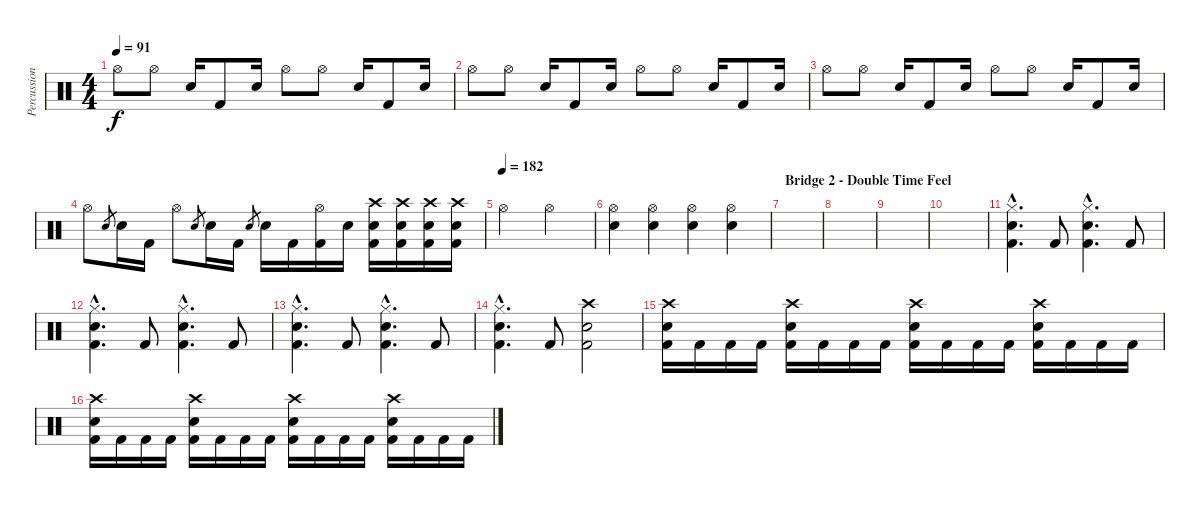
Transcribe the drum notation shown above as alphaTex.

\track ("Percussion" "Percussion") {instrument percussion}
\staff {score}
\articulation defaults
\ts (4 4)
\tempo 91
\clef neutral
\ks c "Hi-Hat (open)".8{dy f} "Hi-Hat (open)".8 "Snare (hit) 2".16 "Kick (hit) 2".8 "Snare (hit) 2".16 "Hi-Hat (open)".8 "Hi-Hat (open)".8 "Snare (hit) 2".16 "Kick (hit) 2".8 "Snare (hit) 2".16
|
"Hi-Hat (open)".8 "Hi-Hat (open)".8 "Snare (hit) 2".16 "Kick (hit) 2".8 "Snare (hit) 2".16 "Hi-Hat (open)".8 "Hi-Hat (open)".8 "Snare (hit) 2".16 "Kick (hit) 2".8 "Snare (hit) 2".16 |
"Hi-Hat (open)".8 "Hi-Hat (open)".8 "Snare (hit) 2".16 "Kick (hit) 2".8 "Snare (hit) 2".16 "Hi-Hat (open)".8 "Hi-Hat (open)".8 "Snare (hit) 2".16 "Kick (hit) 2".8 "Snare (hit) 2".16 |
"Hi-Hat (open)".8 "Snare (hit) 2".8{gr} "Snare (hit) 2".16 "Kick (hit) 2".16 "Hi-Hat (open)".8 "Snare (hit) 2".8{gr} "Snare (hit) 2".16 "Kick (hit) 2".16 "Snare (hit) 2".8{gr} "Snare (hit) 2".16 "Kick (hit) 2".16 ("Hi-Hat (open)" "Kick (hit) 2").16 "Snare (hit) 2".16 ("Crash high (hit)" "Snare (hit) 2" "Kick (hit) 2").16 ("Crash high (hit)" "Snare (hit) 2" "Kick (hit) 2").16 ("Crash high (hit)" "Snare (hit) 2" "Kick (hit) 2").16 ("Crash high (hit)" "Snare (hit) 2" "Kick (hit) 2").16 |
\tempo (182)
"Hi-Hat (open)".2 "Hi-Hat (open)".2 |
("Hi-Hat (open)" "Snare (hit) 2").4 ("Hi-Hat (open)" "Snare (hit) 2").4 ("Hi-Hat (open)" "Snare (hit) 2").4 ("Hi-Hat (open)" "Snare (hit) 2").4 |
\section ("" "Bridge 2 - Double Time Feel")
|
|
|
|
("Hi-Hat (closed)"{hac} "Snare (hit) 2"{hac} "Kick (hit) 2"{hac}).4{d} "Kick (hit) 2".8 ("Hi-Hat (closed)"{hac} "Snare (hit) 2"{hac} "Kick (hit) 2"{hac}).4{d} "Kick (hit) 2".8 |
("Hi-Hat (closed)"{hac} "Snare (hit) 2"{hac} "Kick (hit) 2"{hac}).4{d} "Kick (hit) 2".8 ("Hi-Hat (closed)"{hac} "Snare (hit) 2"{hac} "Kick (hit) 2"{hac}).4{d} "Kick (hit) 2".8 |
("Hi-Hat (closed)"{hac} "Snare (hit) 2"{hac} "Kick (hit) 2"{hac}).4{d} "Kick (hit) 2".8 ("Hi-Hat (closed)"{hac} "Snare (hit) 2"{hac} "Kick (hit) 2"{hac}).4{d} "Kick (hit) 2".8 |
("Hi-Hat (closed)"{hac} "Snare (hit) 2"{hac} "Kick (hit) 2"{hac}).4{d} "Kick (hit) 2".8 ("Crash high (hit)" "Snare (hit) 2" "Kick (hit) 2").2 |
("Crash high (hit)" "Snare (hit) 2" "Kick (hit) 2").16 "Kick (hit) 2".16 "Kick (hit) 2".16 "Kick (hit) 2".16 ("Crash high (hit)" "Snare (hit) 2" "Kick (hit) 2").16 "Kick (hit) 2".16 "Kick (hit) 2".16 "Kick (hit) 2".16 ("Crash high (hit)" "Snare (hit) 2" "Kick (hit) 2").16 "Kick (hit) 2".16 "Kick (hit) 2".16 "Kick (hit) 2".16 ("Crash high (hit)" "Snare (hit) 2" "Kick (hit) 2").16 "Kick (hit) 2".16 "Kick (hit) 2".16 "Kick (hit) 2".16 |
("Crash high (hit)" "Snare (hit) 2" "Kick (hit) 2").16 "Kick (hit) 2".16 "Kick (hit) 2".16 "Kick (hit) 2".16 ("Crash high (hit)" "Snare (hit) 2" "Kick (hit) 2").16 "Kick (hit) 2".16 "Kick (hit) 2".16 "Kick (hit) 2".16 ("Crash high (hit)" "Snare (hit) 2" "Kick (hit) 2").16 "Kick (hit) 2".16 "Kick (hit) 2".16 "Kick (hit) 2".16 ("Crash high (hit)" "Snare (hit) 2" "Kick (hit) 2").16 "Kick (hit) 2".16 "Kick (hit) 2".16 "Kick (hit) 2".16
